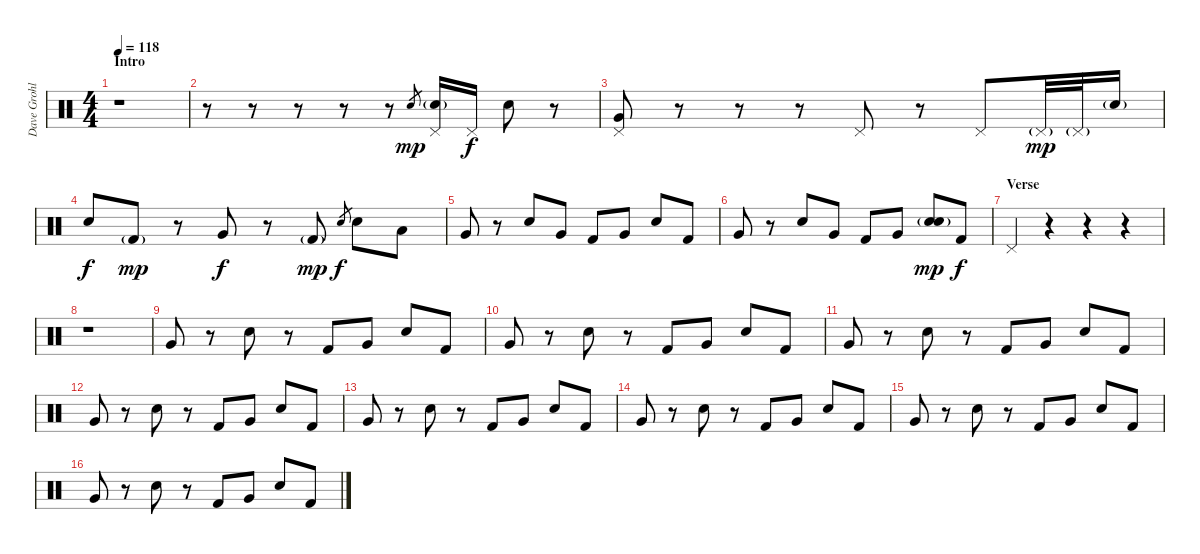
\track ("Dave Grohl - Drums" "Dave Grohl") {instrument percussion}
\staff {score}
\articulation defaults
\ts (4 4)
\section ("" "Intro")
\tempo 118
\clef neutral
\ks c
r.1{dy mp} |
r.8 r.8 r.8 r.8 r.8 "Electric Snare (hit)".8{gr} ("Pedal Hi-Hat (hit)" "Electric Snare (hit)"{g}).16 "Pedal Hi-Hat (hit)".16{dy f} "Electric Snare (hit)".8 r.8 |
("Pedal Hi-Hat (hit)" "Very Low Tom (hit)").8 r.8 r.8 r.8 "Pedal Hi-Hat (hit)".8 r.8 "Pedal Hi-Hat (hit)".8 "Pedal Hi-Hat (hit)"{g}.32{dy mp} "Pedal Hi-Hat (hit)"{g}.32 "Electric Snare (hit)"{g}.16 |
"Electric Snare (hit)".8{dy f} "Kick (hit) 2"{g}.8{dy mp} r.8 "Very Low Tom (hit)".8{dy f} r.8 "Kick (hit) 2"{g}.8{dy mp} "Electric Snare (hit)".8{gr dy f} "Electric Snare (hit)".8 "Low Floor Tom (hit)".8 |
"Very Low Tom (hit)".8 r.8 "Electric Snare (hit)".8 "Very Low Tom (hit)".8 "Kick (hit) 2".8 "Very Low Tom (hit)".8 "Electric Snare (hit)".8 "Kick (hit) 2".8 |
"Very Low Tom (hit)".8 r.8 "Electric Snare (hit)".8 "Very Low Tom (hit)".8 "Kick (hit) 2".8 "Very Low Tom (hit)".8 ("Electric Snare (hit)"{g} "Snare (hit) 2").8{dy mp} "Kick (hit) 2".8{dy f} |
\section ("" "Verse")
"Pedal Hi-Hat (hit)".4 r.4 r.4 r.4 |
r.1 |
"Very Low Tom (hit)".8{volume 10} r.8 "Electric Snare (hit)".8 r.8 "Kick (hit) 2".8 "Very Low Tom (hit)".8 "Electric Snare (hit)".8 "Kick (hit) 2".8 |
"Very Low Tom (hit)".8 r.8 "Electric Snare (hit)".8 r.8 "Kick (hit) 2".8 "Very Low Tom (hit)".8 "Electric Snare (hit)".8 "Kick (hit) 2".8 |
"Very Low Tom (hit)".8 r.8 "Electric Snare (hit)".8 r.8 "Kick (hit) 2".8 "Very Low Tom (hit)".8 "Electric Snare (hit)".8 "Kick (hit) 2".8 |
"Very Low Tom (hit)".8 r.8 "Electric Snare (hit)".8 r.8 "Kick (hit) 2".8 "Very Low Tom (hit)".8 "Electric Snare (hit)".8 "Kick (hit) 2".8 |
"Very Low Tom (hit)".8 r.8 "Electric Snare (hit)".8 r.8 "Kick (hit) 2".8 "Very Low Tom (hit)".8 "Electric Snare (hit)".8 "Kick (hit) 2".8 |
"Very Low Tom (hit)".8 r.8 "Electric Snare (hit)".8 r.8 "Kick (hit) 2".8 "Very Low Tom (hit)".8 "Electric Snare (hit)".8 "Kick (hit) 2".8 |
"Very Low Tom (hit)".8 r.8 "Electric Snare (hit)".8 r.8 "Kick (hit) 2".8 "Very Low Tom (hit)".8 "Electric Snare (hit)".8 "Kick (hit) 2".8 |
"Very Low Tom (hit)".8 r.8 "Electric Snare (hit)".8 r.8 "Kick (hit) 2".8 "Very Low Tom (hit)".8 "Electric Snare (hit)".8 "Kick (hit) 2".8
